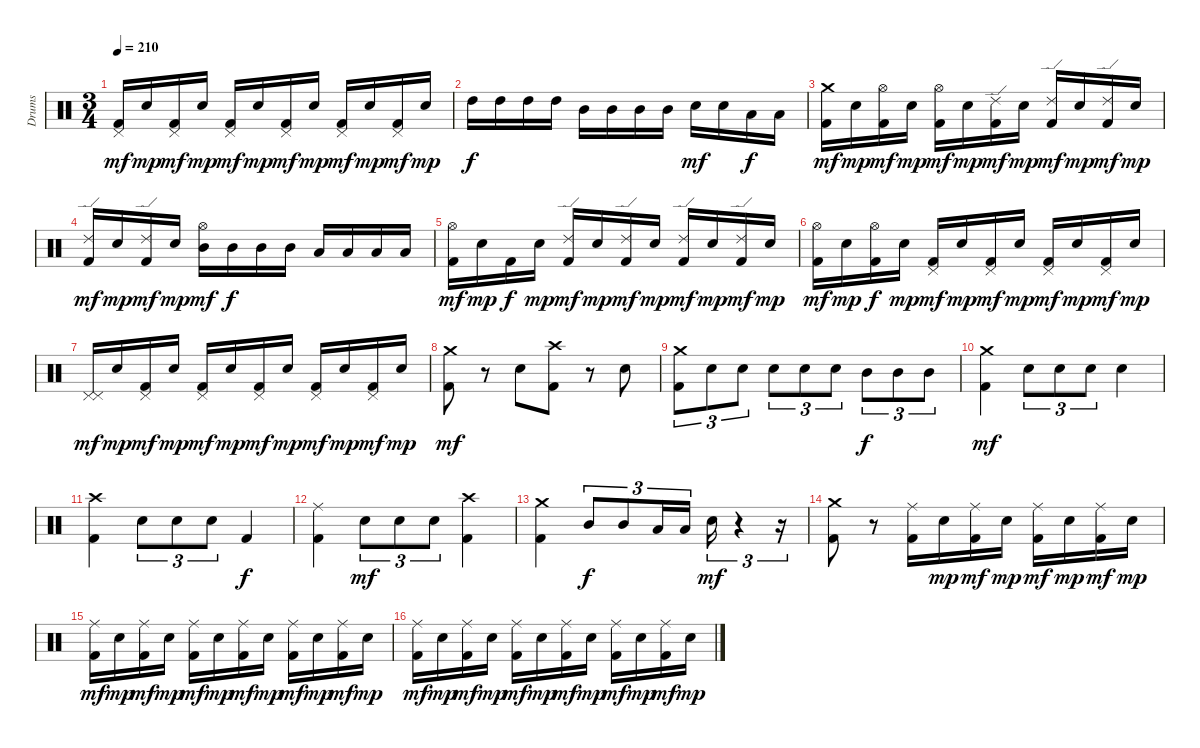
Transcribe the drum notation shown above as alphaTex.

\track ("Drums" "Drums") {instrument percussion}
\staff {score}
\articulation defaults
\ts (3 4)
\tempo 210
\clef neutral
\ks c
("Pedal Hi-Hat (hit)" "Kick (hit) 2").16{dy mf} "Electric Snare (hit)".16{dy mp} ("Pedal Hi-Hat (hit)" "Kick (hit) 2").16{dy mf} "Electric Snare (hit)".16{dy mp} ("Pedal Hi-Hat (hit)" "Kick (hit) 2").16{dy mf} "Electric Snare (hit)".16{dy mp} ("Pedal Hi-Hat (hit)" "Kick (hit) 2").16{dy mf} "Electric Snare (hit)".16{dy mp} ("Pedal Hi-Hat (hit)" "Kick (hit) 2").16{dy mf} "Electric Snare (hit)".16{dy mp} ("Pedal Hi-Hat (hit)" "Kick (hit) 2").16{dy mf} "Electric Snare (hit)".16{dy mp} |
"High Tom (hit)".16{dy f} "High Tom (hit)".16 "High Tom (hit)".16 "High Tom (hit)".16 "Mid Tom (hit)".16 "Mid Tom (hit)".16 "Mid Tom (hit)".16 "Mid Tom (hit)".16 "Electric Snare (hit)".16{dy mf} "Electric Snare (hit)".16 "Low Tom (hit)".16{dy f} "Low Tom (hit)".16 |
("Crash medium (hit)" "Kick (hit) 2").16{dy mf} "Electric Snare (hit)".16{dy mp} ("Hi-Hat (open)" "Kick (hit) 2").16{dy mf} "Electric Snare (hit)".16{dy mp} ("Hi-Hat (open)" "Kick (hit) 2").16{dy mf} "Electric Snare (hit)".16{dy mp} ("Ride (edge) 2" "Kick (hit) 2").16{dy mf} "Electric Snare (hit)".16{dy mp} ("Ride (edge) 2" "Kick (hit) 2").16{dy mf} "Electric Snare (hit)".16{dy mp} ("Ride (edge) 2" "Kick (hit) 2").16{dy mf} "Electric Snare (hit)".16{dy mp} |
("Ride (edge) 2" "Kick (hit) 2").16{dy mf} "Electric Snare (hit)".16{dy mp} ("Ride (edge) 2" "Kick (hit) 2").16{dy mf} "Electric Snare (hit)".16{dy mp} ("Hi-Hat (open)" "Mid Tom (hit)").16{dy mf} "Mid Tom (hit)".16{dy f} "Mid Tom (hit)".16 "Mid Tom (hit)".16 "Low Tom (hit)".16 "Low Tom (hit)".16 "Low Tom (hit)".16 "Low Tom (hit)".16 |
("Hi-Hat (open)" "Kick (hit) 2").16{dy mf} "Electric Snare (hit)".16{dy mp} "Kick (hit) 2".16{dy f} "Electric Snare (hit)".16{dy mp} ("Ride (edge) 2" "Kick (hit) 2").16{dy mf} "Electric Snare (hit)".16{dy mp} ("Ride (edge) 2" "Kick (hit) 2").16{dy mf} "Electric Snare (hit)".16{dy mp} ("Ride (edge) 2" "Kick (hit) 2").16{dy mf} "Electric Snare (hit)".16{dy mp} ("Ride (edge) 2" "Kick (hit) 2").16{dy mf} "Electric Snare (hit)".16{dy mp} |
("Hi-Hat (open)" "Kick (hit) 2").16{dy mf} "Electric Snare (hit)".16{dy mp} ("Hi-Hat (open)" "Kick (hit) 2").16{dy f} "Electric Snare (hit)".16{dy mp} ("Pedal Hi-Hat (hit)" "Kick (hit) 2").16{dy mf} "Electric Snare (hit)".16{dy mp} ("Pedal Hi-Hat (hit)" "Kick (hit) 2").16{dy mf} "Electric Snare (hit)".16{dy mp} ("Pedal Hi-Hat (hit)" "Kick (hit) 2").16{dy mf} "Electric Snare (hit)".16{dy mp} ("Pedal Hi-Hat (hit)" "Kick (hit) 2").16{dy mf} "Electric Snare (hit)".16{dy mp} |
("Pedal Hi-Hat (hit)" "Pedal Hi-Hat (hit)").16{dy mf} "Electric Snare (hit)".16{dy mp} ("Pedal Hi-Hat (hit)" "Kick (hit) 2").16{dy mf} "Electric Snare (hit)".16{dy mp} ("Pedal Hi-Hat (hit)" "Kick (hit) 2").16{dy mf} "Electric Snare (hit)".16{dy mp} ("Pedal Hi-Hat (hit)" "Kick (hit) 2").16{dy mf} "Electric Snare (hit)".16{dy mp} ("Pedal Hi-Hat (hit)" "Kick (hit) 2").16{dy mf} "Electric Snare (hit)".16{dy mp} ("Pedal Hi-Hat (hit)" "Kick (hit) 2").16{dy mf} "Electric Snare (hit)".16{dy mp} |
("Crash medium (hit)" "Kick (hit) 2").8{dy mf} r.8 "Electric Snare (hit)".8 ("Crash high (hit)" "Kick (hit) 2").8 r.8 "Electric Snare (hit)".8 |
("Crash medium (hit)" "Kick (hit) 2").8{tu (3 2)} "Electric Snare (hit)".8{tu (3 2)} "Electric Snare (hit)".8{tu (3 2)} "Electric Snare (hit)".8{tu (3 2)} "Electric Snare (hit)".8{tu (3 2)} "Electric Snare (hit)".8{tu (3 2)} "Mid Tom (hit)".8{tu (3 2) dy f} "Mid Tom (hit)".8{tu (3 2)} "Mid Tom (hit)".8{tu (3 2)} |
("Crash medium (hit)" "Kick (hit) 2").4{dy mf} "Electric Snare (hit)".8{tu (3 2)} "Electric Snare (hit)".8{tu (3 2)} "Electric Snare (hit)".8{tu (3 2)} "Electric Snare (hit)".4 |
("Crash high (hit)" "Kick (hit) 2").4 "Electric Snare (hit)".8{tu (3 2)} "Electric Snare (hit)".8{tu (3 2)} "Electric Snare (hit)".8{tu (3 2)} "Kick (hit) 2".4{dy f} |
("Ride (middle)" "Kick (hit) 2").4 "Electric Snare (hit)".8{tu (3 2) dy mf} "Electric Snare (hit)".8{tu (3 2)} "Electric Snare (hit)".8{tu (3 2)} ("Crash high (hit)" "Kick (hit) 2").4 |
("Crash medium (hit)" "Kick (hit) 2").4 "Mid Tom (hit)".8{tu (3 2) dy f} "Mid Tom (hit)".8{tu (3 2)} "Low Tom (hit)".16{tu (3 2)} "Low Tom (hit)".16{tu (3 2)} "Electric Snare (hit)".16{tu (3 2) dy mf} r.4{tu (3 2)} r.16{tu (3 2)} |
("Crash medium (hit)" "Kick (hit) 2").8 r.8 ("Ride (middle)" "Kick (hit) 2").16 "Electric Snare (hit)".16{dy mp} ("Ride (middle)" "Kick (hit) 2").16{dy mf} "Electric Snare (hit)".16{dy mp} ("Ride (middle)" "Kick (hit) 2").16{dy mf} "Electric Snare (hit)".16{dy mp} ("Ride (middle)" "Kick (hit) 2").16{dy mf} "Electric Snare (hit)".16{dy mp} |
("Ride (middle)" "Kick (hit) 2").16{dy mf} "Electric Snare (hit)".16{dy mp} ("Ride (middle)" "Kick (hit) 2").16{dy mf} "Electric Snare (hit)".16{dy mp} ("Ride (middle)" "Kick (hit) 2").16{dy mf} "Electric Snare (hit)".16{dy mp} ("Ride (middle)" "Kick (hit) 2").16{dy mf} "Electric Snare (hit)".16{dy mp} ("Ride (middle)" "Kick (hit) 2").16{dy mf} "Electric Snare (hit)".16{dy mp} ("Ride (middle)" "Kick (hit) 2").16{dy mf} "Electric Snare (hit)".16{dy mp} |
("Ride (middle)" "Kick (hit) 2").16{dy mf} "Electric Snare (hit)".16{dy mp} ("Ride (middle)" "Kick (hit) 2").16{dy mf} "Electric Snare (hit)".16{dy mp} ("Ride (middle)" "Kick (hit) 2").16{dy mf} "Electric Snare (hit)".16{dy mp} ("Ride (middle)" "Kick (hit) 2").16{dy mf} "Electric Snare (hit)".16{dy mp} ("Ride (middle)" "Kick (hit) 2").16{dy mf} "Electric Snare (hit)".16{dy mp} ("Ride (middle)" "Kick (hit) 2").16{dy mf} "Electric Snare (hit)".16{dy mp}
